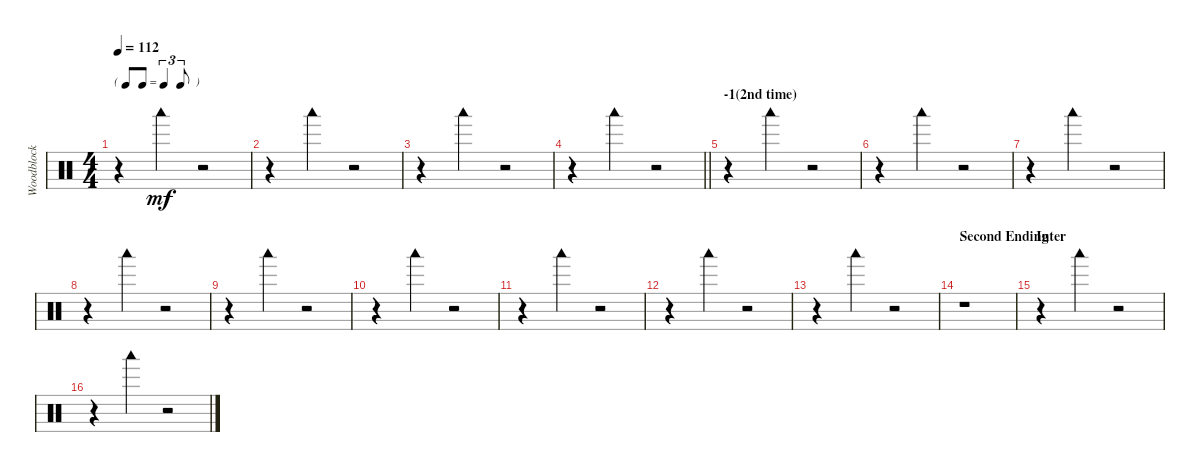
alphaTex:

\track ("Woodblock" "Woodblock") {instrument percussion}
\staff {score}
\articulation defaults
\ts (4 4)
\tf triplet8th
\tempo 112
\clef neutral
\ks c
r.4{dy mf} "Woodblock low (hit)".4 r.2 |
r.4 "Woodblock low (hit)".4 r.2 |
r.4 "Woodblock low (hit)".4 r.2 |
\barLineRight lightlight
r.4 "Woodblock low (hit)".4 r.2 |
\section ("" "-1(2nd time)")
r.4 "Woodblock low (hit)".4 r.2 |
r.4 "Woodblock low (hit)".4 r.2 |
r.4 "Woodblock low (hit)".4 r.2 |
r.4 "Woodblock low (hit)".4 r.2 |
r.4 "Woodblock low (hit)".4 r.2 |
r.4 "Woodblock low (hit)".4 r.2 |
r.4 "Woodblock low (hit)".4 r.2 |
r.4 "Woodblock low (hit)".4 r.2 |
r.4 "Woodblock low (hit)".4 r.2 |
\section ("" "Second Ending")
r.1 |
\section ("" "Inter")
r.4 "Woodblock low (hit)".4 r.2 |
r.4 "Woodblock low (hit)".4 r.2
